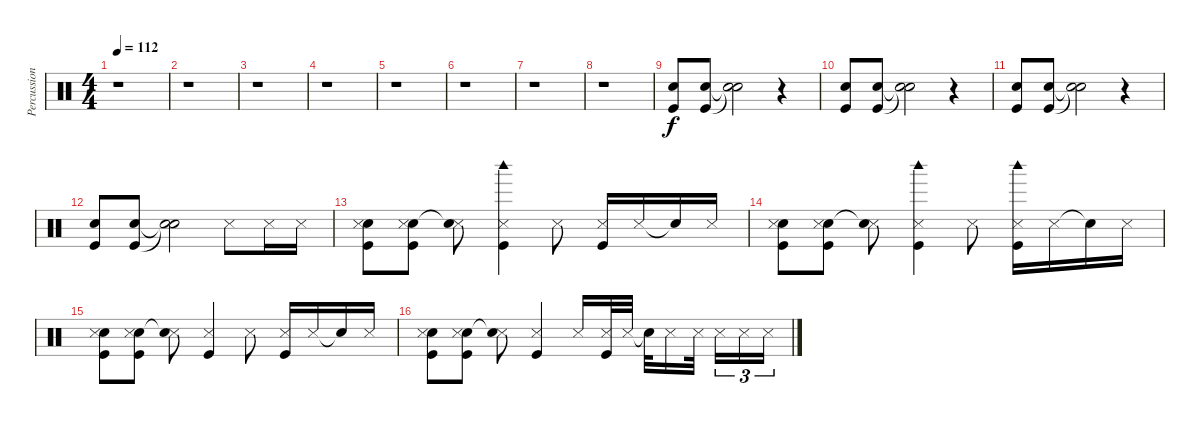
\track ("Percussions" "Percussion") {instrument percussion}
\staff {score}
\articulation defaults
\ts (4 4)
\tempo 112
\clef neutral
\ks c
r.1{dy f} |
r.1 |
r.1 |
r.1 |
r.1 |
r.1 |
r.1 |
r.1 |
("Electric Snare (hit)" "Kick (hit)").8 ("Electric Snare (hit)" "Kick (hit)").8 ("Snare (hit)"{t} "Snare (hit)"{t}).2 r.4 |
("Electric Snare (hit)" "Kick (hit)").8 ("Electric Snare (hit)" "Kick (hit)").8 ("Snare (hit)"{t} "Snare (hit)"{t}).2 r.4 |
("Electric Snare (hit)" "Kick (hit)").8 ("Electric Snare (hit)" "Kick (hit)").8 ("Snare (hit)"{t} "Snare (hit)"{t}).2 r.4 |
("Electric Snare (hit)" "Kick (hit)").8 ("Electric Snare (hit)" "Kick (hit)").8 ("Snare (hit)"{t} "Snare (hit)"{t}).2 "Metronome (hit)".8 "Metronome (hit)".16 "Metronome (hit)".16 |
("Electric Snare (hit)" "Metronome (hit)" "Kick (hit)").8 ("Electric Snare (hit)" "Metronome (hit)" "Kick (hit)").8 ("Metronome (hit)" "Snare (hit)"{t}).8 ("Woodblock high (hit)" "Metronome (hit)" "Kick (hit)").4 "Metronome (hit)".8 ("Metronome (hit)" "Kick (hit)").16 "Metronome (hit)".16 "Snare (hit)"{t}.16 "Metronome (hit)".16 |
("Electric Snare (hit)" "Metronome (hit)" "Kick (hit)").8 ("Electric Snare (hit)" "Metronome (hit)" "Kick (hit)").8 ("Metronome (hit)" "Snare (hit)"{t}).8 ("Woodblock high (hit)" "Metronome (hit)" "Kick (hit)").4 "Metronome (hit)".8 ("Woodblock high (hit)" "Metronome (hit)" "Kick (hit)").16 "Metronome (hit)".16 "Snare (hit)"{t}.16 "Metronome (hit)".16 |
("Electric Snare (hit)" "Metronome (hit)" "Kick (hit)").8 ("Electric Snare (hit)" "Metronome (hit)" "Kick (hit)").8 ("Metronome (hit)" "Snare (hit)"{t}).8 ("Metronome (hit)" "Kick (hit)").4 "Metronome (hit)".8 ("Metronome (hit)" "Kick (hit)").16 "Metronome (hit)".16 "Snare (hit)"{t}.16 "Metronome (hit)".16 |
("Electric Snare (hit)" "Metronome (hit)" "Kick (hit)").8 ("Electric Snare (hit)" "Metronome (hit)" "Kick (hit)").8 ("Metronome (hit)" "Snare (hit)"{t}).8 ("Metronome (hit)" "Kick (hit)").4 "Metronome (hit)".16 ("Metronome (hit)" "Kick (hit)").32 "Metronome (hit)".32 "Snare (hit)"{t}.32 "Metronome (hit)".16 "Metronome (hit)".32 "Metronome (hit)".16{tu (3 2)} "Metronome (hit)".16{tu (3 2)} "Metronome (hit)".16{tu (3 2)}
